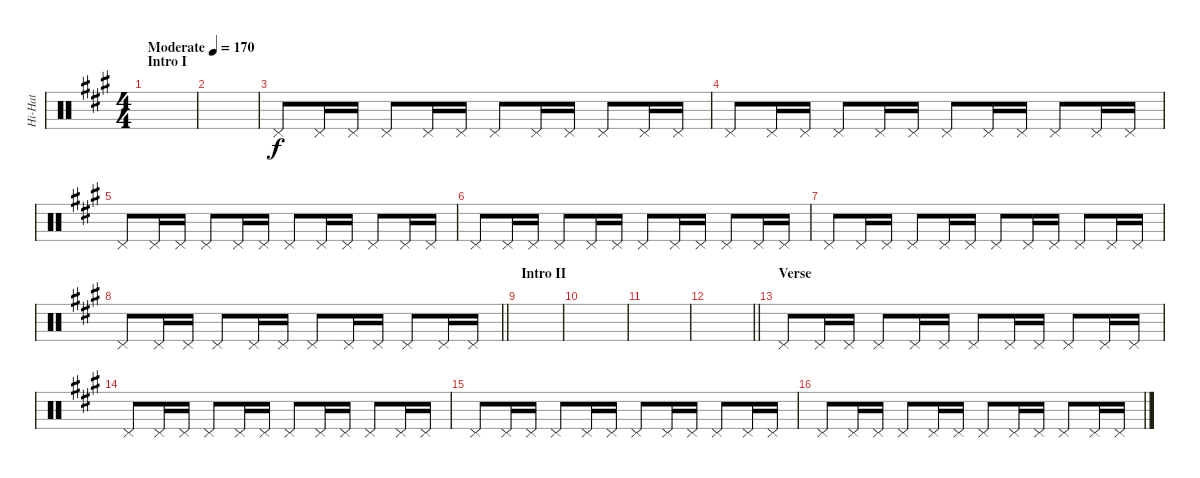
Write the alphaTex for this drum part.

\track ("Hi-Hat" "Hi-Hat") {instrument percussion}
\staff {score}
\articulation defaults
\ts (4 4)
\section ("" "Intro I")
\tempo (170 "Moderate")
\clef neutral
\ks a
|
|
"Pedal Hi-Hat (hit)".8 "Pedal Hi-Hat (hit)".16 "Pedal Hi-Hat (hit)".16 "Pedal Hi-Hat (hit)".8 "Pedal Hi-Hat (hit)".16 "Pedal Hi-Hat (hit)".16 "Pedal Hi-Hat (hit)".8 "Pedal Hi-Hat (hit)".16 "Pedal Hi-Hat (hit)".16 "Pedal Hi-Hat (hit)".8 "Pedal Hi-Hat (hit)".16 "Pedal Hi-Hat (hit)".16 |
"Pedal Hi-Hat (hit)".8 "Pedal Hi-Hat (hit)".16 "Pedal Hi-Hat (hit)".16 "Pedal Hi-Hat (hit)".8 "Pedal Hi-Hat (hit)".16 "Pedal Hi-Hat (hit)".16 "Pedal Hi-Hat (hit)".8 "Pedal Hi-Hat (hit)".16 "Pedal Hi-Hat (hit)".16 "Pedal Hi-Hat (hit)".8 "Pedal Hi-Hat (hit)".16 "Pedal Hi-Hat (hit)".16 |
"Pedal Hi-Hat (hit)".8 "Pedal Hi-Hat (hit)".16 "Pedal Hi-Hat (hit)".16 "Pedal Hi-Hat (hit)".8 "Pedal Hi-Hat (hit)".16 "Pedal Hi-Hat (hit)".16 "Pedal Hi-Hat (hit)".8 "Pedal Hi-Hat (hit)".16 "Pedal Hi-Hat (hit)".16 "Pedal Hi-Hat (hit)".8 "Pedal Hi-Hat (hit)".16 "Pedal Hi-Hat (hit)".16 |
"Pedal Hi-Hat (hit)".8 "Pedal Hi-Hat (hit)".16 "Pedal Hi-Hat (hit)".16 "Pedal Hi-Hat (hit)".8 "Pedal Hi-Hat (hit)".16 "Pedal Hi-Hat (hit)".16 "Pedal Hi-Hat (hit)".8 "Pedal Hi-Hat (hit)".16 "Pedal Hi-Hat (hit)".16 "Pedal Hi-Hat (hit)".8 "Pedal Hi-Hat (hit)".16 "Pedal Hi-Hat (hit)".16 |
"Pedal Hi-Hat (hit)".8 "Pedal Hi-Hat (hit)".16 "Pedal Hi-Hat (hit)".16 "Pedal Hi-Hat (hit)".8 "Pedal Hi-Hat (hit)".16 "Pedal Hi-Hat (hit)".16 "Pedal Hi-Hat (hit)".8 "Pedal Hi-Hat (hit)".16 "Pedal Hi-Hat (hit)".16 "Pedal Hi-Hat (hit)".8 "Pedal Hi-Hat (hit)".16 "Pedal Hi-Hat (hit)".16 |
\barLineRight lightlight "Pedal Hi-Hat (hit)".8 "Pedal Hi-Hat (hit)".16 "Pedal Hi-Hat (hit)".16 "Pedal Hi-Hat (hit)".8 "Pedal Hi-Hat (hit)".16 "Pedal Hi-Hat (hit)".16 "Pedal Hi-Hat (hit)".8 "Pedal Hi-Hat (hit)".16 "Pedal Hi-Hat (hit)".16 "Pedal Hi-Hat (hit)".8 "Pedal Hi-Hat (hit)".16 "Pedal Hi-Hat (hit)".16
|
\section ("" "Intro II")
|
|
|
\barLineRight lightlight
|
\section ("" "Verse")
"Pedal Hi-Hat (hit)".8 "Pedal Hi-Hat (hit)".16 "Pedal Hi-Hat (hit)".16 "Pedal Hi-Hat (hit)".8 "Pedal Hi-Hat (hit)".16 "Pedal Hi-Hat (hit)".16 "Pedal Hi-Hat (hit)".8 "Pedal Hi-Hat (hit)".16 "Pedal Hi-Hat (hit)".16 "Pedal Hi-Hat (hit)".8 "Pedal Hi-Hat (hit)".16 "Pedal Hi-Hat (hit)".16 |
"Pedal Hi-Hat (hit)".8 "Pedal Hi-Hat (hit)".16 "Pedal Hi-Hat (hit)".16 "Pedal Hi-Hat (hit)".8 "Pedal Hi-Hat (hit)".16 "Pedal Hi-Hat (hit)".16 "Pedal Hi-Hat (hit)".8 "Pedal Hi-Hat (hit)".16 "Pedal Hi-Hat (hit)".16 "Pedal Hi-Hat (hit)".8 "Pedal Hi-Hat (hit)".16 "Pedal Hi-Hat (hit)".16 |
"Pedal Hi-Hat (hit)".8 "Pedal Hi-Hat (hit)".16 "Pedal Hi-Hat (hit)".16 "Pedal Hi-Hat (hit)".8 "Pedal Hi-Hat (hit)".16 "Pedal Hi-Hat (hit)".16 "Pedal Hi-Hat (hit)".8 "Pedal Hi-Hat (hit)".16 "Pedal Hi-Hat (hit)".16 "Pedal Hi-Hat (hit)".8 "Pedal Hi-Hat (hit)".16 "Pedal Hi-Hat (hit)".16 |
"Pedal Hi-Hat (hit)".8 "Pedal Hi-Hat (hit)".16 "Pedal Hi-Hat (hit)".16 "Pedal Hi-Hat (hit)".8 "Pedal Hi-Hat (hit)".16 "Pedal Hi-Hat (hit)".16 "Pedal Hi-Hat (hit)".8 "Pedal Hi-Hat (hit)".16 "Pedal Hi-Hat (hit)".16 "Pedal Hi-Hat (hit)".8 "Pedal Hi-Hat (hit)".16 "Pedal Hi-Hat (hit)".16
